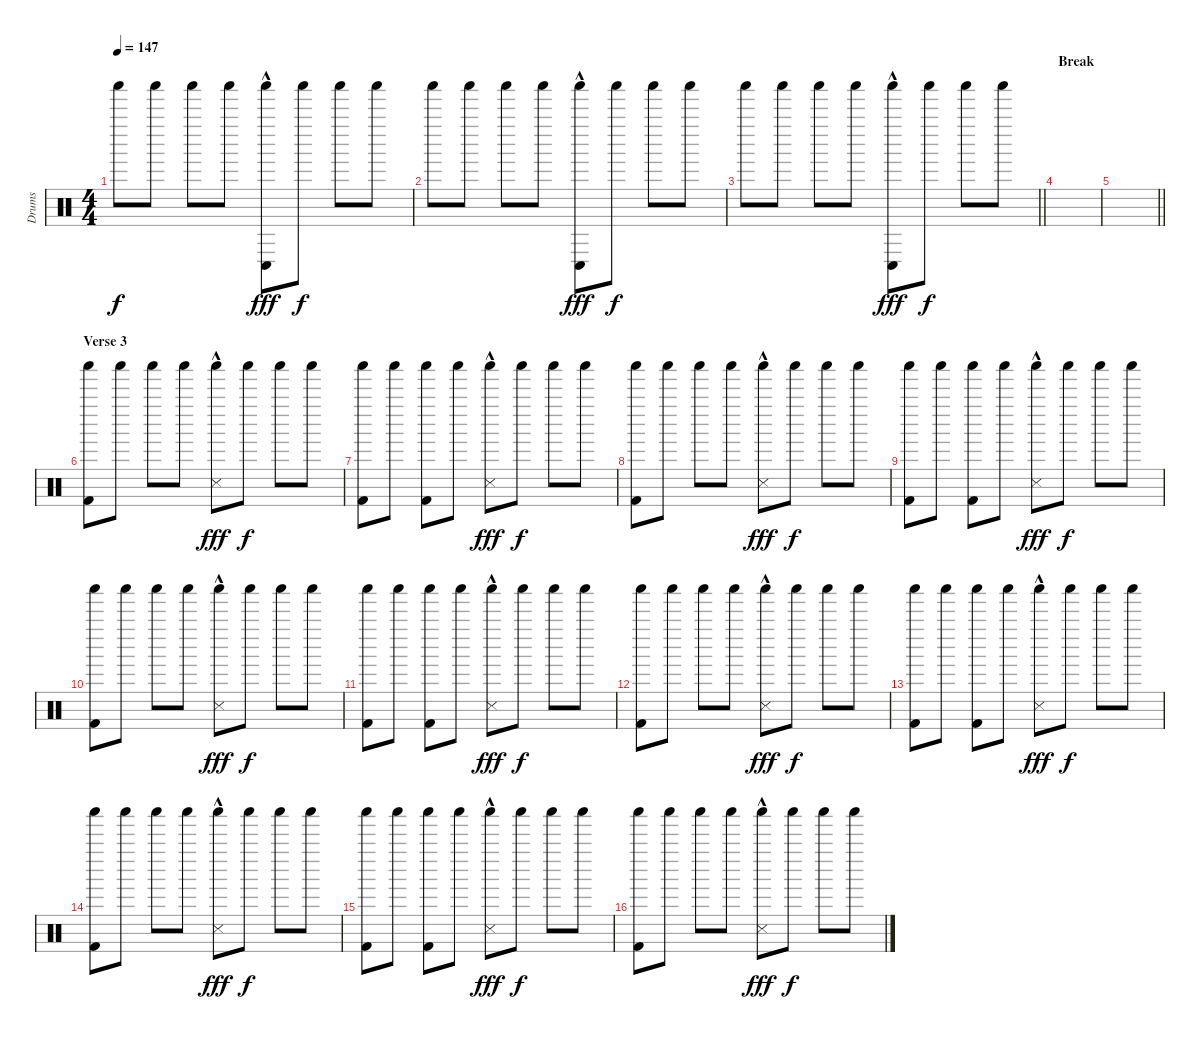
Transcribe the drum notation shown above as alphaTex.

\track ("Drums" "Drums") {instrument percussion}
\staff {score}
\articulation defaults
\ts (4 4)
\tempo 147
\clef neutral
\ks c "Shaker (hit)".8{dy f} "Shaker (hit)".8 "Shaker (hit)".8 "Shaker (hit)".8
("Conga low (hit)" "Shaker (hit)"{hac}).8{dy fff} "Shaker (hit)".8{dy f} "Shaker (hit)".8 "Shaker (hit)".8 |
"Shaker (hit)".8 "Shaker (hit)".8 "Shaker (hit)".8 "Shaker (hit)".8 ("Conga low (hit)"{hac} "Shaker (hit)").8{dy fff} "Shaker (hit)".8{dy f} "Shaker (hit)".8 "Shaker (hit)".8 |
\barLineRight lightlight "Shaker (hit)".8 "Shaker (hit)".8 "Shaker (hit)".8 "Shaker (hit)".8
("Conga low (hit)"{hac} "Shaker (hit)").8{dy fff} "Shaker (hit)".8{dy f} "Shaker (hit)".8 "Shaker (hit)".8 |
\section ("" "Break ")
|
\barLineRight lightlight
|
\section ("" "Verse 3")
("Kick (hit) 2" "Shaker (hit)").8 "Shaker (hit)".8 "Shaker (hit)".8 "Shaker (hit)".8 ("Snare (side stick) 3"{hac} "Shaker (hit)").8{dy fff} "Shaker (hit)".8{dy f} "Shaker (hit)".8 "Shaker (hit)".8 |
("Kick (hit) 2" "Shaker (hit)").8 "Shaker (hit)".8 ("Kick (hit) 2" "Shaker (hit)").8 "Shaker (hit)".8 ("Snare (side stick) 3"{hac} "Shaker (hit)").8{dy fff} "Shaker (hit)".8{dy f} "Shaker (hit)".8 "Shaker (hit)".8 |
("Kick (hit) 2" "Shaker (hit)").8 "Shaker (hit)".8 "Shaker (hit)".8 "Shaker (hit)".8 ("Snare (side stick) 3"{hac} "Shaker (hit)").8{dy fff} "Shaker (hit)".8{dy f} "Shaker (hit)".8 "Shaker (hit)".8 |
("Kick (hit) 2" "Shaker (hit)").8 "Shaker (hit)".8 ("Kick (hit) 2" "Shaker (hit)").8 "Shaker (hit)".8 ("Snare (side stick) 3"{hac} "Shaker (hit)").8{dy fff} "Shaker (hit)".8{dy f} "Shaker (hit)".8 "Shaker (hit)".8 |
("Kick (hit) 2" "Shaker (hit)").8 "Shaker (hit)".8 "Shaker (hit)".8 "Shaker (hit)".8 ("Snare (side stick) 3"{hac} "Shaker (hit)").8{dy fff} "Shaker (hit)".8{dy f} "Shaker (hit)".8 "Shaker (hit)".8 |
("Kick (hit) 2" "Shaker (hit)").8 "Shaker (hit)".8 ("Kick (hit) 2" "Shaker (hit)").8 "Shaker (hit)".8 ("Snare (side stick) 3"{hac} "Shaker (hit)").8{dy fff} "Shaker (hit)".8{dy f} "Shaker (hit)".8 "Shaker (hit)".8 |
("Kick (hit) 2" "Shaker (hit)").8 "Shaker (hit)".8 "Shaker (hit)".8 "Shaker (hit)".8 ("Snare (side stick) 3"{hac} "Shaker (hit)").8{dy fff} "Shaker (hit)".8{dy f} "Shaker (hit)".8 "Shaker (hit)".8 |
("Kick (hit) 2" "Shaker (hit)").8 "Shaker (hit)".8 ("Kick (hit) 2" "Shaker (hit)").8 "Shaker (hit)".8 ("Snare (side stick) 3"{hac} "Shaker (hit)").8{dy fff} "Shaker (hit)".8{dy f} "Shaker (hit)".8 "Shaker (hit)".8 |
("Kick (hit) 2" "Shaker (hit)").8 "Shaker (hit)".8 "Shaker (hit)".8 "Shaker (hit)".8 ("Snare (side stick) 3"{hac} "Shaker (hit)").8{dy fff} "Shaker (hit)".8{dy f} "Shaker (hit)".8 "Shaker (hit)".8 |
("Kick (hit) 2" "Shaker (hit)").8 "Shaker (hit)".8 ("Kick (hit) 2" "Shaker (hit)").8 "Shaker (hit)".8 ("Snare (side stick) 3"{hac} "Shaker (hit)").8{dy fff} "Shaker (hit)".8{dy f} "Shaker (hit)".8 "Shaker (hit)".8 |
("Kick (hit) 2" "Shaker (hit)").8 "Shaker (hit)".8 "Shaker (hit)".8 "Shaker (hit)".8 ("Snare (side stick) 3"{hac} "Shaker (hit)").8{dy fff} "Shaker (hit)".8{dy f} "Shaker (hit)".8 "Shaker (hit)".8
